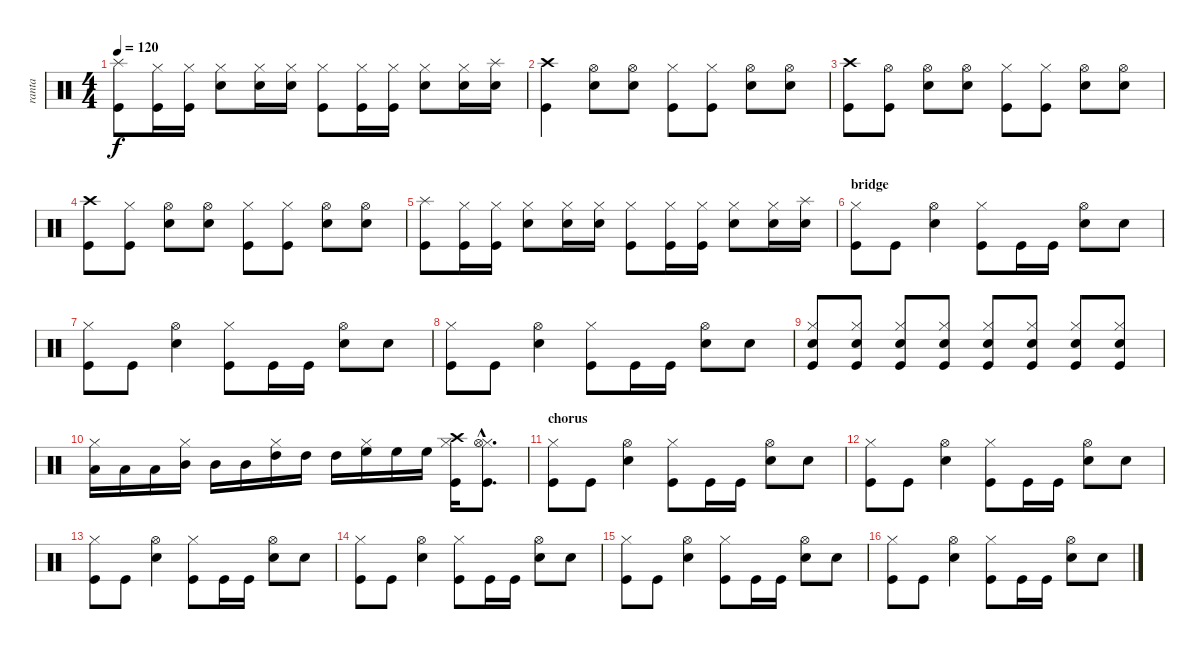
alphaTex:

\track ("ranta" "ranta") {instrument percussion}
\staff {score}
\articulation defaults
\ts (4 4)
\tempo 120
\clef neutral
\ks c
("Splash (hit)" "Kick (hit)").8{dy f} ("Hi-Hat (closed)" "Kick (hit)").16 ("Hi-Hat (closed)" "Kick (hit)").16 ("Hi-Hat (closed)" "Snare (hit) 2").8 ("Hi-Hat (closed)" "Snare (hit) 2").16 ("Hi-Hat (closed)" "Snare (hit) 2").16 ("Hi-Hat (closed)" "Kick (hit)").8 ("Hi-Hat (closed)" "Kick (hit)").16 ("Hi-Hat (closed)" "Kick (hit)").16 ("Hi-Hat (closed)" "Snare (hit) 2").8 ("Hi-Hat (closed)" "Snare (hit) 2").16 ("Splash (hit)" "Snare (hit) 2").16 |
("Crash high (hit)" "Kick (hit)").4 ("Hi-Hat (open)" "Snare (hit) 2").8 ("Hi-Hat (open)" "Snare (hit) 2").8 ("Hi-Hat (closed)" "Kick (hit)").8 ("Hi-Hat (closed)" "Kick (hit)").8 ("Hi-Hat (open)" "Snare (hit) 2").8 ("Hi-Hat (open)" "Snare (hit) 2").8 |
("Crash high (hit)" "Kick (hit)").8 ("Hi-Hat (open)" "Kick (hit)").8 ("Hi-Hat (open)" "Snare (hit) 2").8 ("Hi-Hat (open)" "Snare (hit) 2").8 ("Hi-Hat (closed)" "Kick (hit)").8 ("Hi-Hat (closed)" "Kick (hit)").8 ("Hi-Hat (open)" "Snare (hit) 2").8 ("Hi-Hat (open)" "Snare (hit) 2").8 |
("Crash high (hit)" "Kick (hit)").8 ("Hi-Hat (closed)" "Kick (hit)").8 ("Hi-Hat (open)" "Snare (hit) 2").8 ("Hi-Hat (open)" "Snare (hit) 2").8 ("Hi-Hat (closed)" "Kick (hit)").8 ("Hi-Hat (closed)" "Kick (hit)").8 ("Hi-Hat (open)" "Snare (hit) 2").8 ("Hi-Hat (open)" "Snare (hit) 2").8 |
("Splash (hit)" "Kick (hit)").8 ("Hi-Hat (closed)" "Kick (hit)").16 ("Hi-Hat (closed)" "Kick (hit)").16 ("Hi-Hat (closed)" "Snare (hit) 2").8 ("Hi-Hat (closed)" "Snare (hit) 2").16 ("Hi-Hat (closed)" "Snare (hit) 2").16 ("Hi-Hat (closed)" "Kick (hit)").8 ("Hi-Hat (closed)" "Kick (hit)").16 ("Hi-Hat (closed)" "Kick (hit)").16 ("Hi-Hat (closed)" "Snare (hit) 2").8 ("Hi-Hat (closed)" "Snare (hit) 2").16 ("Splash (hit)" "Snare (hit) 2").16 |
\section ("" "bridge")
("Hi-Hat (closed)" "Kick (hit)").8 "Kick (hit)".8 ("Hi-Hat (open)" "Snare (hit) 2").4 ("Hi-Hat (closed)" "Kick (hit)").8 "Kick (hit)".16 "Kick (hit)".16 ("Hi-Hat (open)" "Snare (hit) 2").8 "Snare (hit) 2".8 |
("Hi-Hat (closed)" "Kick (hit)").8 "Kick (hit)".8 ("Hi-Hat (open)" "Snare (hit) 2").4 ("Hi-Hat (closed)" "Kick (hit)").8 "Kick (hit)".16 "Kick (hit)".16 ("Hi-Hat (open)" "Snare (hit) 2").8 "Snare (hit) 2".8 |
("Hi-Hat (closed)" "Kick (hit)").8 "Kick (hit)".8 ("Hi-Hat (open)" "Snare (hit) 2").4 ("Hi-Hat (closed)" "Kick (hit)").8 "Kick (hit)".16 "Kick (hit)".16 ("Hi-Hat (open)" "Snare (hit) 2").8 "Snare (hit) 2".8 |
("Hi-Hat (closed)" "Snare (hit) 2" "Kick (hit)").8 ("Hi-Hat (closed)" "Snare (hit) 2" "Kick (hit)").8 ("Hi-Hat (closed)" "Snare (hit) 2" "Kick (hit)").8 ("Hi-Hat (closed)" "Snare (hit) 2" "Kick (hit)").8 ("Hi-Hat (closed)" "Snare (hit) 2" "Kick (hit)").8 ("Hi-Hat (closed)" "Snare (hit) 2" "Kick (hit)").8 ("Hi-Hat (closed)" "Snare (hit) 2" "Kick (hit)").8 ("Hi-Hat (closed)" "Snare (hit) 2" "Kick (hit)").8 |
("Hi-Hat (closed)" "Low Tom (hit)").16 "Low Tom (hit)".16 "Low Tom (hit)".16 ("Hi-Hat (closed)" "Mid Tom (hit)").16 "Mid Tom (hit)".16 "Mid Tom (hit)".16 ("Hi-Hat (closed)" "High Tom (hit)").16 "High Tom (hit)".16 "High Tom (hit)".16 ("Hi-Hat (closed)" "High Floor Tom (hit)").16 "High Floor Tom (hit)".16 "High Floor Tom (hit)".16 ("Hi-Hat (closed)" "Crash high (hit)" "Kick (hit)").16 ("Hi-Hat (closed)"{hac} "Hi-Hat (open)"{hac} "Kick (hit)"{hac}).8{d} |
\section ("" "chorus")
("Hi-Hat (closed)" "Kick (hit)").8 "Kick (hit)".8 ("Hi-Hat (open)" "Snare (hit) 2").4 ("Hi-Hat (closed)" "Kick (hit)").8 "Kick (hit)".16 "Kick (hit)".16 ("Hi-Hat (open)" "Snare (hit) 2").8 "Snare (hit) 2".8 |
("Hi-Hat (closed)" "Kick (hit)").8 "Kick (hit)".8 ("Hi-Hat (open)" "Snare (hit) 2").4 ("Hi-Hat (closed)" "Kick (hit)").8 "Kick (hit)".16 "Kick (hit)".16 ("Hi-Hat (open)" "Snare (hit) 2").8 "Snare (hit) 2".8 |
("Hi-Hat (closed)" "Kick (hit)").8 "Kick (hit)".8 ("Hi-Hat (open)" "Snare (hit) 2").4 ("Hi-Hat (closed)" "Kick (hit)").8 "Kick (hit)".16 "Kick (hit)".16 ("Hi-Hat (open)" "Snare (hit) 2").8 "Snare (hit) 2".8 |
("Hi-Hat (closed)" "Kick (hit)").8 "Kick (hit)".8 ("Hi-Hat (open)" "Snare (hit) 2").4 ("Hi-Hat (closed)" "Kick (hit)").8 "Kick (hit)".16 "Kick (hit)".16 ("Hi-Hat (open)" "Snare (hit) 2").8 "Snare (hit) 2".8 |
("Hi-Hat (closed)" "Kick (hit)").8 "Kick (hit)".8 ("Hi-Hat (open)" "Snare (hit) 2").4 ("Hi-Hat (closed)" "Kick (hit)").8 "Kick (hit)".16 "Kick (hit)".16 ("Hi-Hat (open)" "Snare (hit) 2").8 "Snare (hit) 2".8 |
("Hi-Hat (closed)" "Kick (hit)").8 "Kick (hit)".8 ("Hi-Hat (open)" "Snare (hit) 2").4 ("Hi-Hat (closed)" "Kick (hit)").8 "Kick (hit)".16 "Kick (hit)".16 ("Hi-Hat (open)" "Snare (hit) 2").8 "Snare (hit) 2".8
